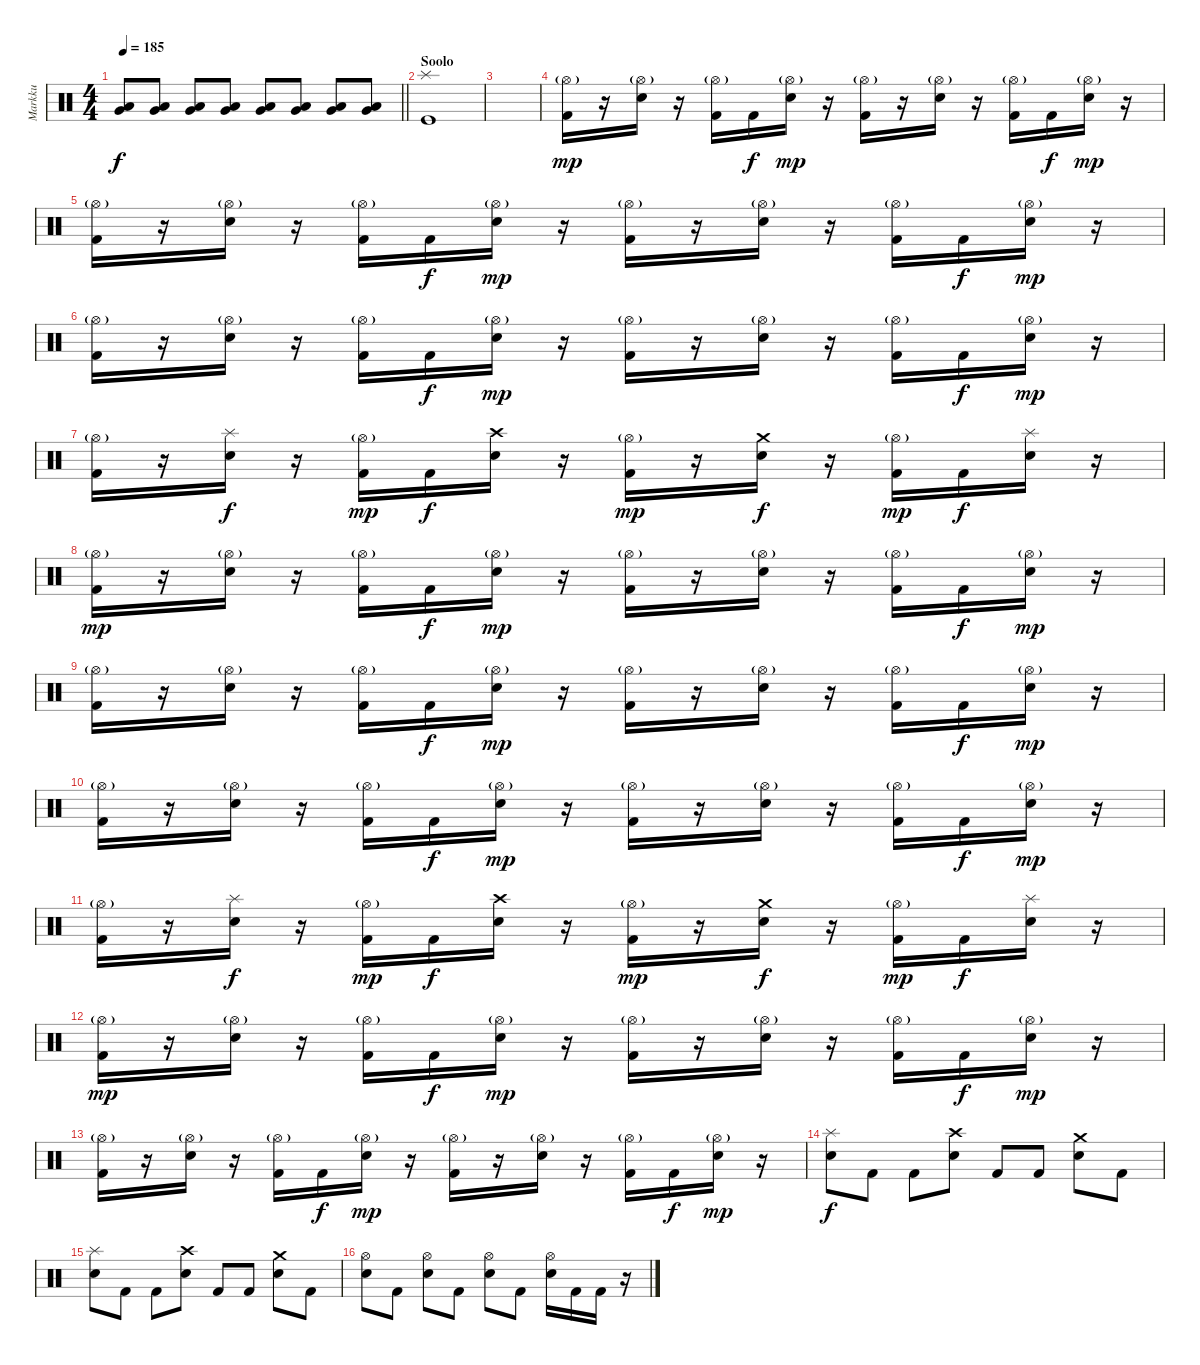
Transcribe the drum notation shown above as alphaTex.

\track ("Markku" "Markku") {instrument percussion}
\staff {score}
\articulation defaults
\ts (4 4)
\tempo 185
\clef neutral
\barLineRight lightlight
\ks c
("Low Tom (hit)" "Very Low Tom (hit)").8{dy f} ("Low Tom (hit)" "Very Low Tom (hit)").8 ("Low Tom (hit)" "Very Low Tom (hit)").8 ("Low Tom (hit)" "Very Low Tom (hit)").8 ("Low Tom (hit)" "Very Low Tom (hit)").8 ("Low Tom (hit)" "Very Low Tom (hit)").8 ("Low Tom (hit)" "Very Low Tom (hit)").8 ("Low Tom (hit)" "Very Low Tom (hit)").8 |
\section ("" "Soolo")
("Kick (hit)" "Splash (hit)").1 |
|
("Kick (hit) 2" "Hi-Hat (open)"{g}).16{dy mp} r.16 ("Snare (hit) 2" "Hi-Hat (open)"{g}).16 r.16 ("Kick (hit) 2" "Hi-Hat (open)"{g}).16 "Kick (hit) 2".16{dy f} ("Snare (hit) 2" "Hi-Hat (open)"{g}).16{dy mp} r.16 ("Kick (hit) 2" "Hi-Hat (open)"{g}).16 r.16 ("Snare (hit) 2" "Hi-Hat (open)"{g}).16 r.16 ("Kick (hit) 2" "Hi-Hat (open)"{g}).16 "Kick (hit) 2".16{dy f} ("Snare (hit) 2" "Hi-Hat (open)"{g}).16{dy mp} r.16 |
("Kick (hit) 2" "Hi-Hat (open)"{g}).16 r.16 ("Snare (hit) 2" "Hi-Hat (open)"{g}).16 r.16 ("Kick (hit) 2" "Hi-Hat (open)"{g}).16 "Kick (hit) 2".16{dy f} ("Snare (hit) 2" "Hi-Hat (open)"{g}).16{dy mp} r.16 ("Kick (hit) 2" "Hi-Hat (open)"{g}).16 r.16 ("Snare (hit) 2" "Hi-Hat (open)"{g}).16 r.16 ("Kick (hit) 2" "Hi-Hat (open)"{g}).16 "Kick (hit) 2".16{dy f} ("Snare (hit) 2" "Hi-Hat (open)"{g}).16{dy mp} r.16 |
("Kick (hit) 2" "Hi-Hat (open)"{g}).16 r.16 ("Snare (hit) 2" "Hi-Hat (open)"{g}).16 r.16 ("Kick (hit) 2" "Hi-Hat (open)"{g}).16 "Kick (hit) 2".16{dy f} ("Snare (hit) 2" "Hi-Hat (open)"{g}).16{dy mp} r.16 ("Kick (hit) 2" "Hi-Hat (open)"{g}).16 r.16 ("Snare (hit) 2" "Hi-Hat (open)"{g}).16 r.16 ("Kick (hit) 2" "Hi-Hat (open)"{g}).16 "Kick (hit) 2".16{dy f} ("Snare (hit) 2" "Hi-Hat (open)"{g}).16{dy mp} r.16 |
("Kick (hit) 2" "Hi-Hat (open)"{g}).16 r.16 ("Snare (hit) 2" "Splash (hit)").16{dy f} r.16 ("Kick (hit) 2" "Hi-Hat (open)"{g}).16{dy mp} "Kick (hit) 2".16{dy f} ("Snare (hit) 2" "Crash high (hit)").16 r.16 ("Kick (hit) 2" "Hi-Hat (open)"{g}).16{dy mp} r.16 ("Snare (hit) 2" "Crash medium (hit)").16{dy f} r.16 ("Kick (hit) 2" "Hi-Hat (open)"{g}).16{dy mp} "Kick (hit) 2".16{dy f} ("Snare (hit) 2" "Splash (hit)").16 r.16 |
("Kick (hit) 2" "Hi-Hat (open)"{g}).16{dy mp} r.16 ("Snare (hit) 2" "Hi-Hat (open)"{g}).16 r.16 ("Kick (hit) 2" "Hi-Hat (open)"{g}).16 "Kick (hit) 2".16{dy f} ("Snare (hit) 2" "Hi-Hat (open)"{g}).16{dy mp} r.16 ("Kick (hit) 2" "Hi-Hat (open)"{g}).16 r.16 ("Snare (hit) 2" "Hi-Hat (open)"{g}).16 r.16 ("Kick (hit) 2" "Hi-Hat (open)"{g}).16 "Kick (hit) 2".16{dy f} ("Snare (hit) 2" "Hi-Hat (open)"{g}).16{dy mp} r.16 |
("Kick (hit) 2" "Hi-Hat (open)"{g}).16 r.16 ("Snare (hit) 2" "Hi-Hat (open)"{g}).16 r.16 ("Kick (hit) 2" "Hi-Hat (open)"{g}).16 "Kick (hit) 2".16{dy f} ("Snare (hit) 2" "Hi-Hat (open)"{g}).16{dy mp} r.16 ("Kick (hit) 2" "Hi-Hat (open)"{g}).16 r.16 ("Snare (hit) 2" "Hi-Hat (open)"{g}).16 r.16 ("Kick (hit) 2" "Hi-Hat (open)"{g}).16 "Kick (hit) 2".16{dy f} ("Snare (hit) 2" "Hi-Hat (open)"{g}).16{dy mp} r.16 |
("Kick (hit) 2" "Hi-Hat (open)"{g}).16 r.16 ("Snare (hit) 2" "Hi-Hat (open)"{g}).16 r.16 ("Kick (hit) 2" "Hi-Hat (open)"{g}).16 "Kick (hit) 2".16{dy f} ("Snare (hit) 2" "Hi-Hat (open)"{g}).16{dy mp} r.16 ("Kick (hit) 2" "Hi-Hat (open)"{g}).16 r.16 ("Snare (hit) 2" "Hi-Hat (open)"{g}).16 r.16 ("Kick (hit) 2" "Hi-Hat (open)"{g}).16 "Kick (hit) 2".16{dy f} ("Snare (hit) 2" "Hi-Hat (open)"{g}).16{dy mp} r.16 |
("Kick (hit) 2" "Hi-Hat (open)"{g}).16 r.16 ("Snare (hit) 2" "Splash (hit)").16{dy f} r.16 ("Kick (hit) 2" "Hi-Hat (open)"{g}).16{dy mp} "Kick (hit) 2".16{dy f} ("Snare (hit) 2" "Crash high (hit)").16 r.16 ("Kick (hit) 2" "Hi-Hat (open)"{g}).16{dy mp} r.16 ("Snare (hit) 2" "Crash medium (hit)").16{dy f} r.16 ("Kick (hit) 2" "Hi-Hat (open)"{g}).16{dy mp} "Kick (hit) 2".16{dy f} ("Snare (hit) 2" "Splash (hit)").16 r.16 |
("Kick (hit) 2" "Hi-Hat (open)"{g}).16{dy mp} r.16 ("Snare (hit) 2" "Hi-Hat (open)"{g}).16 r.16 ("Kick (hit) 2" "Hi-Hat (open)"{g}).16 "Kick (hit) 2".16{dy f} ("Snare (hit) 2" "Hi-Hat (open)"{g}).16{dy mp} r.16 ("Kick (hit) 2" "Hi-Hat (open)"{g}).16 r.16 ("Snare (hit) 2" "Hi-Hat (open)"{g}).16 r.16 ("Kick (hit) 2" "Hi-Hat (open)"{g}).16 "Kick (hit) 2".16{dy f} ("Snare (hit) 2" "Hi-Hat (open)"{g}).16{dy mp} r.16 |
("Kick (hit) 2" "Hi-Hat (open)"{g}).16 r.16 ("Snare (hit) 2" "Hi-Hat (open)"{g}).16 r.16 ("Kick (hit) 2" "Hi-Hat (open)"{g}).16 "Kick (hit) 2".16{dy f} ("Snare (hit) 2" "Hi-Hat (open)"{g}).16{dy mp} r.16 ("Kick (hit) 2" "Hi-Hat (open)"{g}).16 r.16 ("Snare (hit) 2" "Hi-Hat (open)"{g}).16 r.16 ("Kick (hit) 2" "Hi-Hat (open)"{g}).16 "Kick (hit) 2".16{dy f} ("Snare (hit) 2" "Hi-Hat (open)"{g}).16{dy mp} r.16 |
("Snare (hit) 2" "Splash (hit)").8{dy f} "Kick (hit) 2".8 "Kick (hit) 2".8 ("Snare (hit) 2" "Crash high (hit)").8 "Kick (hit) 2".8 "Kick (hit) 2".8 ("Snare (hit) 2" "Crash medium (hit)").8 "Kick (hit) 2".8 |
("Snare (hit) 2" "Splash (hit)").8 "Kick (hit) 2".8 "Kick (hit) 2".8 ("Snare (hit) 2" "Crash high (hit)").8 "Kick (hit) 2".8 "Kick (hit) 2".8 ("Snare (hit) 2" "Crash medium (hit)").8 "Kick (hit) 2".8 |
("Snare (hit) 2" "Hi-Hat (open)").8 "Kick (hit) 2".8 ("Snare (hit) 2" "Hi-Hat (open)").8 "Kick (hit) 2".8 ("Snare (hit) 2" "Hi-Hat (open)").8 "Kick (hit) 2".8 ("Snare (hit) 2" "Hi-Hat (open)").16 "Kick (hit) 2".16 "Kick (hit) 2".16 r.16
